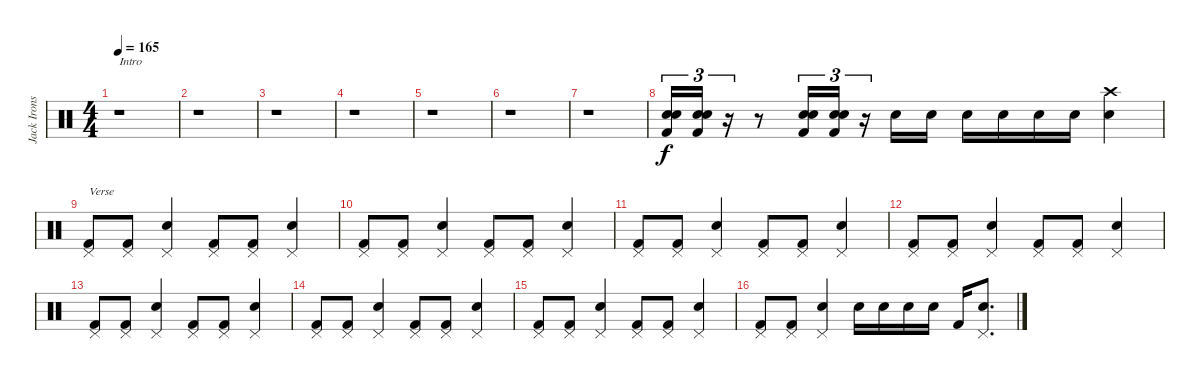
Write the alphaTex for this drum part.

\track ("Jack Irons" "Jack Irons") {instrument percussion}
\staff {score}
\articulation defaults
\ts (4 4)
\tempo 165
\clef neutral
\ks c
r.1{txt "Intro" dy f} |
r.1 |
r.1 |
r.1 |
r.1 |
r.1 |
r.1 |
("Snare (hit) 2" "Snare (hit) 2" "Kick (hit) 2").16{tu (3 2)} ("Snare (hit) 2" "Snare (hit) 2" "Kick (hit) 2").16{tu (3 2)} r.16{tu (3 2)} r.8 ("Snare (hit) 2" "Snare (hit) 2" "Kick (hit) 2").16{tu (3 2)} ("Snare (hit) 2" "Snare (hit) 2" "Kick (hit) 2").16{tu (3 2)} r.16{tu (3 2)} "Snare (hit) 2".16 "Snare (hit) 2".16 "Snare (hit) 2".16 "Snare (hit) 2".16 "Snare (hit) 2".16 "Snare (hit) 2".16 ("Crash high (hit)" "Snare (hit) 2").4 |
("Pedal Hi-Hat (hit)" "Kick (hit) 2").8{txt "Verse"} ("Pedal Hi-Hat (hit)" "Kick (hit) 2").8 ("Pedal Hi-Hat (hit)" "Snare (hit) 2").4 ("Pedal Hi-Hat (hit)" "Kick (hit) 2").8 ("Pedal Hi-Hat (hit)" "Kick (hit) 2").8 ("Pedal Hi-Hat (hit)" "Snare (hit) 2").4 |
("Pedal Hi-Hat (hit)" "Kick (hit) 2").8 ("Pedal Hi-Hat (hit)" "Kick (hit) 2").8 ("Pedal Hi-Hat (hit)" "Snare (hit) 2").4 ("Pedal Hi-Hat (hit)" "Kick (hit) 2").8 ("Pedal Hi-Hat (hit)" "Kick (hit) 2").8 ("Pedal Hi-Hat (hit)" "Snare (hit) 2").4 |
("Pedal Hi-Hat (hit)" "Kick (hit) 2").8 ("Pedal Hi-Hat (hit)" "Kick (hit) 2").8 ("Pedal Hi-Hat (hit)" "Snare (hit) 2").4 ("Pedal Hi-Hat (hit)" "Kick (hit) 2").8 ("Pedal Hi-Hat (hit)" "Kick (hit) 2").8 ("Pedal Hi-Hat (hit)" "Snare (hit) 2").4 |
("Pedal Hi-Hat (hit)" "Kick (hit) 2").8 ("Pedal Hi-Hat (hit)" "Kick (hit) 2").8 ("Pedal Hi-Hat (hit)" "Snare (hit) 2").4 ("Pedal Hi-Hat (hit)" "Kick (hit) 2").8 ("Pedal Hi-Hat (hit)" "Kick (hit) 2").8 ("Pedal Hi-Hat (hit)" "Snare (hit) 2").4 |
("Pedal Hi-Hat (hit)" "Kick (hit) 2").8 ("Pedal Hi-Hat (hit)" "Kick (hit) 2").8 ("Pedal Hi-Hat (hit)" "Snare (hit) 2").4 ("Pedal Hi-Hat (hit)" "Kick (hit) 2").8 ("Pedal Hi-Hat (hit)" "Kick (hit) 2").8 ("Pedal Hi-Hat (hit)" "Snare (hit) 2").4 |
("Pedal Hi-Hat (hit)" "Kick (hit) 2").8 ("Pedal Hi-Hat (hit)" "Kick (hit) 2").8 ("Pedal Hi-Hat (hit)" "Snare (hit) 2").4 ("Pedal Hi-Hat (hit)" "Kick (hit) 2").8 ("Pedal Hi-Hat (hit)" "Kick (hit) 2").8 ("Pedal Hi-Hat (hit)" "Snare (hit) 2").4 |
("Pedal Hi-Hat (hit)" "Kick (hit) 2").8 ("Pedal Hi-Hat (hit)" "Kick (hit) 2").8 ("Pedal Hi-Hat (hit)" "Snare (hit) 2").4 ("Pedal Hi-Hat (hit)" "Kick (hit) 2").8 ("Pedal Hi-Hat (hit)" "Kick (hit) 2").8 ("Pedal Hi-Hat (hit)" "Snare (hit) 2").4 |
("Pedal Hi-Hat (hit)" "Kick (hit) 2").8 ("Pedal Hi-Hat (hit)" "Kick (hit) 2").8 ("Pedal Hi-Hat (hit)" "Snare (hit) 2").4 "Snare (hit) 2".16 "Snare (hit) 2".16 "Snare (hit) 2".16 "Snare (hit) 2".16 "Kick (hit) 2".16 ("Pedal Hi-Hat (hit)" "Snare (hit) 2").8{d}
